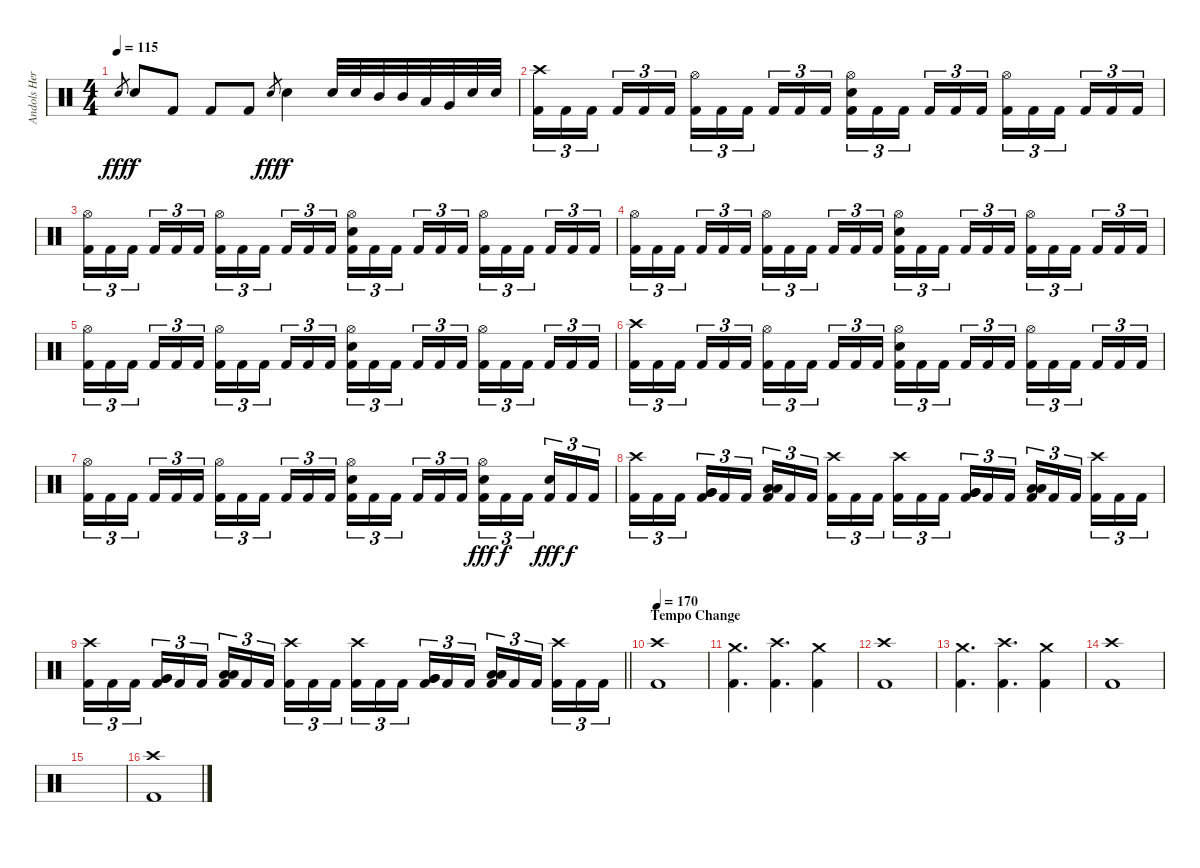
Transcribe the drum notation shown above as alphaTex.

\track ("Andols Herrick" "Andols Her") {instrument percussion}
\staff {score}
\articulation defaults
\ts (4 4)
\tempo 115
\clef neutral
\ks c "Electric Snare (hit)".8{gr dy fff} "Electric Snare (hit)".8{dy f} "Kick (hit) 2".8 "Kick (hit) 2".8 "Kick (hit) 2".8 "Electric Snare (hit)".8{gr dy fff} "Electric Snare (hit)".4{dy f} "Electric Snare (hit)".32 "Electric Snare (hit)".32 "Mid Tom (hit)".32 "Mid Tom (hit)".32 "Low Tom (hit)".32 "Very Low Tom (hit)".32 "Electric Snare (hit)".32 "Electric Snare (hit)".32
|
("Crash high (hit)" "Kick (hit) 2").16{tu (3 2)} "Kick (hit) 2".16{tu (3 2)} "Kick (hit) 2".16{tu (3 2) beam splitsecondary} "Kick (hit) 2".16{tu (3 2)} "Kick (hit) 2".16{tu (3 2)} "Kick (hit) 2".16{tu (3 2)} ("Hi-Hat (open)" "Kick (hit) 2").16{tu (3 2)} "Kick (hit) 2".16{tu (3 2)} "Kick (hit) 2".16{tu (3 2) beam splitsecondary} "Kick (hit) 2".16{tu (3 2)} "Kick (hit) 2".16{tu (3 2)} "Kick (hit) 2".16{tu (3 2)} ("Hi-Hat (open)" "Electric Snare (hit)" "Kick (hit) 2").16{tu (3 2)} "Kick (hit) 2".16{tu (3 2)} "Kick (hit) 2".16{tu (3 2) beam splitsecondary} "Kick (hit) 2".16{tu (3 2)} "Kick (hit) 2".16{tu (3 2)} "Kick (hit) 2".16{tu (3 2)} ("Hi-Hat (open)" "Kick (hit) 2").16{tu (3 2)} "Kick (hit) 2".16{tu (3 2)} "Kick (hit) 2".16{tu (3 2) beam splitsecondary} "Kick (hit) 2".16{tu (3 2)} "Kick (hit) 2".16{tu (3 2)} "Kick (hit) 2".16{tu (3 2)} |
("Hi-Hat (open)" "Kick (hit) 2").16{tu (3 2)} "Kick (hit) 2".16{tu (3 2)} "Kick (hit) 2".16{tu (3 2) beam splitsecondary} "Kick (hit) 2".16{tu (3 2)} "Kick (hit) 2".16{tu (3 2)} "Kick (hit) 2".16{tu (3 2)} ("Hi-Hat (open)" "Kick (hit) 2").16{tu (3 2)} "Kick (hit) 2".16{tu (3 2)} "Kick (hit) 2".16{tu (3 2) beam splitsecondary} "Kick (hit) 2".16{tu (3 2)} "Kick (hit) 2".16{tu (3 2)} "Kick (hit) 2".16{tu (3 2)} ("Hi-Hat (open)" "Electric Snare (hit)" "Kick (hit) 2").16{tu (3 2)} "Kick (hit) 2".16{tu (3 2)} "Kick (hit) 2".16{tu (3 2) beam splitsecondary} "Kick (hit) 2".16{tu (3 2)} "Kick (hit) 2".16{tu (3 2)} "Kick (hit) 2".16{tu (3 2)} ("Hi-Hat (open)" "Kick (hit) 2").16{tu (3 2)} "Kick (hit) 2".16{tu (3 2)} "Kick (hit) 2".16{tu (3 2) beam splitsecondary} "Kick (hit) 2".16{tu (3 2)} "Kick (hit) 2".16{tu (3 2)} "Kick (hit) 2".16{tu (3 2)} |
("Hi-Hat (open)" "Kick (hit) 2").16{tu (3 2)} "Kick (hit) 2".16{tu (3 2)} "Kick (hit) 2".16{tu (3 2) beam splitsecondary} "Kick (hit) 2".16{tu (3 2)} "Kick (hit) 2".16{tu (3 2)} "Kick (hit) 2".16{tu (3 2)} ("Hi-Hat (open)" "Kick (hit) 2").16{tu (3 2)} "Kick (hit) 2".16{tu (3 2)} "Kick (hit) 2".16{tu (3 2) beam splitsecondary} "Kick (hit) 2".16{tu (3 2)} "Kick (hit) 2".16{tu (3 2)} "Kick (hit) 2".16{tu (3 2)} ("Hi-Hat (open)" "Electric Snare (hit)" "Kick (hit) 2").16{tu (3 2)} "Kick (hit) 2".16{tu (3 2)} "Kick (hit) 2".16{tu (3 2) beam splitsecondary} "Kick (hit) 2".16{tu (3 2)} "Kick (hit) 2".16{tu (3 2)} "Kick (hit) 2".16{tu (3 2)} ("Hi-Hat (open)" "Kick (hit) 2").16{tu (3 2)} "Kick (hit) 2".16{tu (3 2)} "Kick (hit) 2".16{tu (3 2) beam splitsecondary} "Kick (hit) 2".16{tu (3 2)} "Kick (hit) 2".16{tu (3 2)} "Kick (hit) 2".16{tu (3 2)} |
("Hi-Hat (open)" "Kick (hit) 2").16{tu (3 2)} "Kick (hit) 2".16{tu (3 2)} "Kick (hit) 2".16{tu (3 2) beam splitsecondary} "Kick (hit) 2".16{tu (3 2)} "Kick (hit) 2".16{tu (3 2)} "Kick (hit) 2".16{tu (3 2)} ("Hi-Hat (open)" "Kick (hit) 2").16{tu (3 2)} "Kick (hit) 2".16{tu (3 2)} "Kick (hit) 2".16{tu (3 2) beam splitsecondary} "Kick (hit) 2".16{tu (3 2)} "Kick (hit) 2".16{tu (3 2)} "Kick (hit) 2".16{tu (3 2)} ("Hi-Hat (open)" "Electric Snare (hit)" "Kick (hit) 2").16{tu (3 2)} "Kick (hit) 2".16{tu (3 2)} "Kick (hit) 2".16{tu (3 2) beam splitsecondary} "Kick (hit) 2".16{tu (3 2)} "Kick (hit) 2".16{tu (3 2)} "Kick (hit) 2".16{tu (3 2)} ("Hi-Hat (open)" "Kick (hit) 2").16{tu (3 2)} "Kick (hit) 2".16{tu (3 2)} "Kick (hit) 2".16{tu (3 2) beam splitsecondary} "Kick (hit) 2".16{tu (3 2)} "Kick (hit) 2".16{tu (3 2)} "Kick (hit) 2".16{tu (3 2)} |
("Crash high (hit)" "Kick (hit) 2").16{tu (3 2)} "Kick (hit) 2".16{tu (3 2)} "Kick (hit) 2".16{tu (3 2) beam splitsecondary} "Kick (hit) 2".16{tu (3 2)} "Kick (hit) 2".16{tu (3 2)} "Kick (hit) 2".16{tu (3 2)} ("Hi-Hat (open)" "Kick (hit) 2").16{tu (3 2)} "Kick (hit) 2".16{tu (3 2)} "Kick (hit) 2".16{tu (3 2) beam splitsecondary} "Kick (hit) 2".16{tu (3 2)} "Kick (hit) 2".16{tu (3 2)} "Kick (hit) 2".16{tu (3 2)} ("Hi-Hat (open)" "Electric Snare (hit)" "Kick (hit) 2").16{tu (3 2)} "Kick (hit) 2".16{tu (3 2)} "Kick (hit) 2".16{tu (3 2) beam splitsecondary} "Kick (hit) 2".16{tu (3 2)} "Kick (hit) 2".16{tu (3 2)} "Kick (hit) 2".16{tu (3 2)} ("Hi-Hat (open)" "Kick (hit) 2").16{tu (3 2)} "Kick (hit) 2".16{tu (3 2)} "Kick (hit) 2".16{tu (3 2) beam splitsecondary} "Kick (hit) 2".16{tu (3 2)} "Kick (hit) 2".16{tu (3 2)} "Kick (hit) 2".16{tu (3 2)} |
("Hi-Hat (open)" "Kick (hit) 2").16{tu (3 2)} "Kick (hit) 2".16{tu (3 2)} "Kick (hit) 2".16{tu (3 2) beam splitsecondary} "Kick (hit) 2".16{tu (3 2)} "Kick (hit) 2".16{tu (3 2)} "Kick (hit) 2".16{tu (3 2)} ("Hi-Hat (open)" "Kick (hit) 2").16{tu (3 2)} "Kick (hit) 2".16{tu (3 2)} "Kick (hit) 2".16{tu (3 2) beam splitsecondary} "Kick (hit) 2".16{tu (3 2)} "Kick (hit) 2".16{tu (3 2)} "Kick (hit) 2".16{tu (3 2)} ("Hi-Hat (open)" "Electric Snare (hit)" "Kick (hit) 2").16{tu (3 2)} "Kick (hit) 2".16{tu (3 2)} "Kick (hit) 2".16{tu (3 2) beam splitsecondary} "Kick (hit) 2".16{tu (3 2)} "Kick (hit) 2".16{tu (3 2)} "Kick (hit) 2".16{tu (3 2)} ("Hi-Hat (open)" "Electric Snare (hit)" "Kick (hit) 2").16{tu (3 2) dy fff} "Kick (hit) 2".16{tu (3 2) dy f} "Kick (hit) 2".16{tu (3 2) beam splitsecondary} ("Electric Snare (hit)" "Kick (hit) 2").16{tu (3 2) dy fff} "Kick (hit) 2".16{tu (3 2) dy f} "Kick (hit) 2".16{tu (3 2)} |
("Crash high (hit)" "Kick (hit) 2").16{tu (3 2)} "Kick (hit) 2".16{tu (3 2)} "Kick (hit) 2".16{tu (3 2) beam splitsecondary} ("Very Low Tom (hit)" "Very Low Tom (hit)" "Kick (hit) 2").16{tu (3 2)} "Kick (hit) 2".16{tu (3 2)} "Kick (hit) 2".16{tu (3 2)} ("Low Floor Tom (hit)" "Low Floor Tom (hit)" "Kick (hit) 2").16{tu (3 2)} "Kick (hit) 2".16{tu (3 2)} "Kick (hit) 2".16{tu (3 2) beam splitsecondary} ("Crash high (hit)" "Kick (hit) 2").16{tu (3 2)} "Kick (hit) 2".16{tu (3 2)} "Kick (hit) 2".16{tu (3 2)} ("Crash high (hit)" "Kick (hit) 2").16{tu (3 2)} "Kick (hit) 2".16{tu (3 2)} "Kick (hit) 2".16{tu (3 2) beam splitsecondary} ("Very Low Tom (hit)" "Very Low Tom (hit)" "Kick (hit) 2").16{tu (3 2)} "Kick (hit) 2".16{tu (3 2)} "Kick (hit) 2".16{tu (3 2)} ("Low Floor Tom (hit)" "Low Floor Tom (hit)" "Kick (hit) 2").16{tu (3 2)} "Kick (hit) 2".16{tu (3 2)} "Kick (hit) 2".16{tu (3 2) beam splitsecondary} ("Crash high (hit)" "Kick (hit) 2").16{tu (3 2)} "Kick (hit) 2".16{tu (3 2)} "Kick (hit) 2".16{tu (3 2)} |
\barLineRight lightlight
("Crash high (hit)" "Kick (hit) 2").16{tu (3 2)} "Kick (hit) 2".16{tu (3 2)} "Kick (hit) 2".16{tu (3 2) beam splitsecondary} ("Very Low Tom (hit)" "Very Low Tom (hit)" "Kick (hit) 2").16{tu (3 2)} "Kick (hit) 2".16{tu (3 2)} "Kick (hit) 2".16{tu (3 2)} ("Low Floor Tom (hit)" "Low Floor Tom (hit)" "Kick (hit) 2").16{tu (3 2)} "Kick (hit) 2".16{tu (3 2)} "Kick (hit) 2".16{tu (3 2) beam splitsecondary} ("Crash high (hit)" "Kick (hit) 2").16{tu (3 2)} "Kick (hit) 2".16{tu (3 2)} "Kick (hit) 2".16{tu (3 2)} ("Crash high (hit)" "Kick (hit) 2").16{tu (3 2)} "Kick (hit) 2".16{tu (3 2)} "Kick (hit) 2".16{tu (3 2) beam splitsecondary} ("Very Low Tom (hit)" "Very Low Tom (hit)" "Kick (hit) 2").16{tu (3 2)} "Kick (hit) 2".16{tu (3 2)} "Kick (hit) 2".16{tu (3 2)} ("Low Floor Tom (hit)" "Low Floor Tom (hit)" "Kick (hit) 2").16{tu (3 2)} "Kick (hit) 2".16{tu (3 2)} "Kick (hit) 2".16{tu (3 2) beam splitsecondary} ("Crash high (hit)" "Kick (hit) 2").16{tu (3 2)} "Kick (hit) 2".16{tu (3 2)} "Kick (hit) 2".16{tu (3 2)} |
\section ("" "Tempo Change")
\tempo 170
("Crash high (hit)" "Kick (hit) 2").1 |
("Crash medium (hit)" "Kick (hit) 2").4{d} ("Crash high (hit)" "Kick (hit) 2").4{d} ("Crash medium (hit)" "Kick (hit) 2").4 |
("Crash high (hit)" "Kick (hit) 2").1 |
("Crash medium (hit)" "Kick (hit) 2").4{d} ("Crash high (hit)" "Kick (hit) 2").4{d} ("Crash medium (hit)" "Kick (hit) 2").4 |
("Crash high (hit)" "Kick (hit) 2").1 |
|
("Crash high (hit)" "Kick (hit) 2").1
